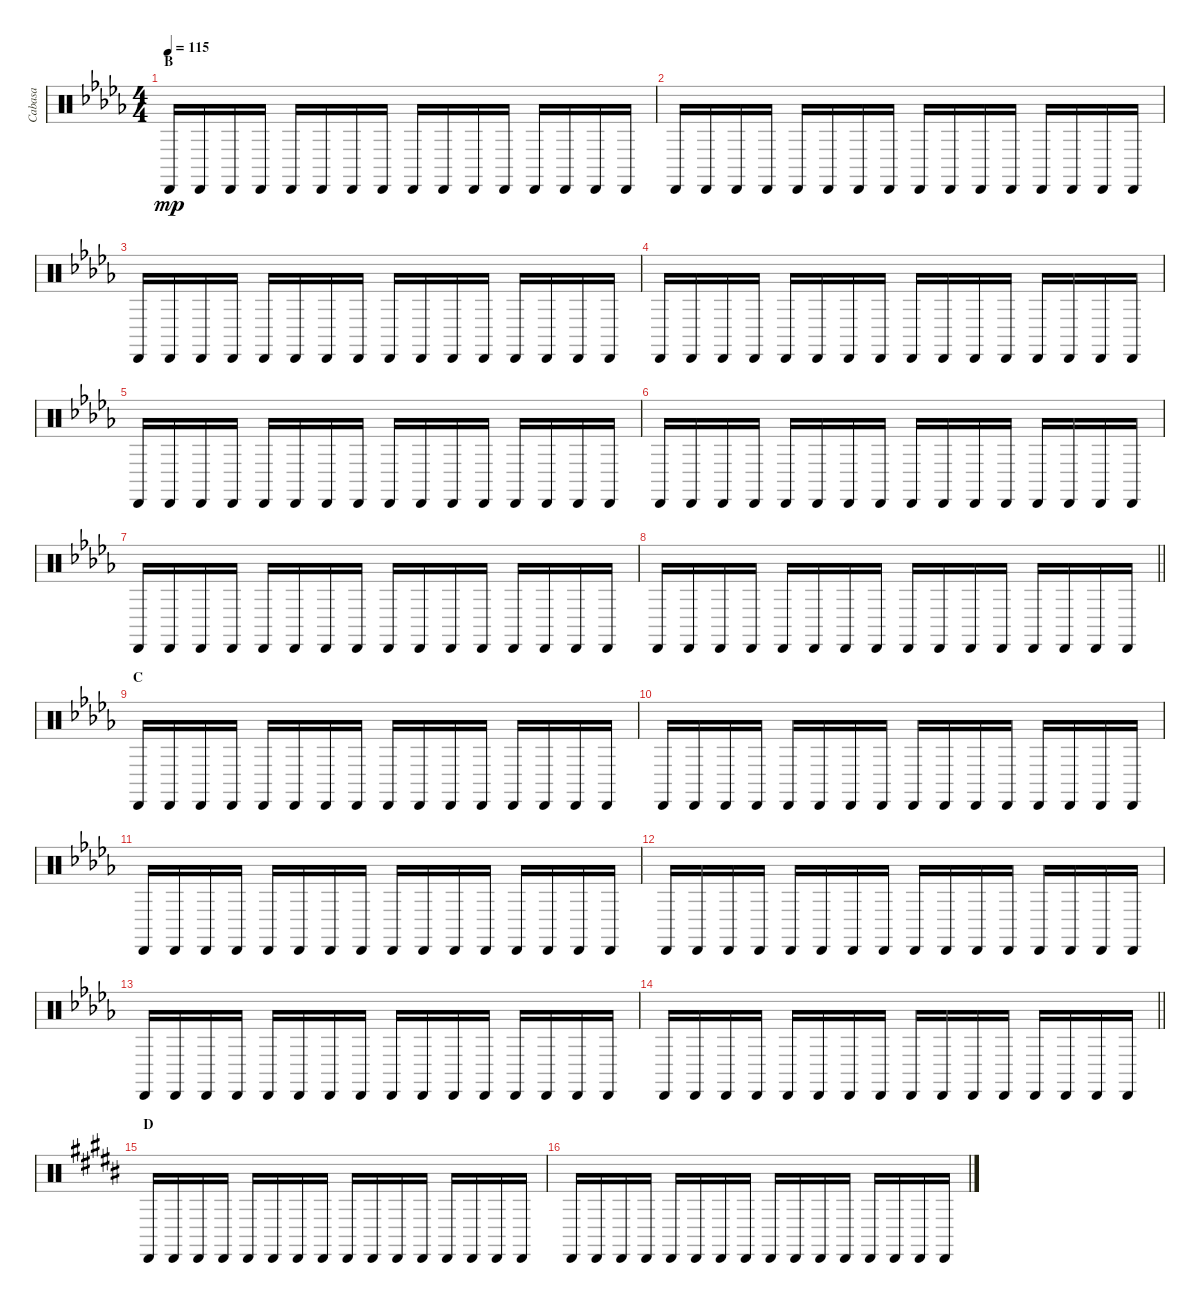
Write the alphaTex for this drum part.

\track ("Cabasa" "Cabasa") {instrument percussion}
\staff {score}
\articulation defaults
\ts (4 4)
\section ("" "B")
\tempo 115
\clef neutral
\ks db "Cabasa (hit)".16{dy mp} "Cabasa (hit)".16 "Cabasa (hit)".16 "Cabasa (hit)".16 "Cabasa (hit)".16 "Cabasa (hit)".16 "Cabasa (hit)".16 "Cabasa (hit)".16 "Cabasa (hit)".16 "Cabasa (hit)".16 "Cabasa (hit)".16 "Cabasa (hit)".16 "Cabasa (hit)".16 "Cabasa (hit)".16 "Cabasa (hit)".16 "Cabasa (hit)".16
|
"Cabasa (hit)".16 "Cabasa (hit)".16 "Cabasa (hit)".16 "Cabasa (hit)".16 "Cabasa (hit)".16 "Cabasa (hit)".16 "Cabasa (hit)".16 "Cabasa (hit)".16 "Cabasa (hit)".16 "Cabasa (hit)".16 "Cabasa (hit)".16 "Cabasa (hit)".16 "Cabasa (hit)".16 "Cabasa (hit)".16 "Cabasa (hit)".16 "Cabasa (hit)".16 |
"Cabasa (hit)".16 "Cabasa (hit)".16 "Cabasa (hit)".16 "Cabasa (hit)".16 "Cabasa (hit)".16 "Cabasa (hit)".16 "Cabasa (hit)".16 "Cabasa (hit)".16 "Cabasa (hit)".16 "Cabasa (hit)".16 "Cabasa (hit)".16 "Cabasa (hit)".16 "Cabasa (hit)".16 "Cabasa (hit)".16 "Cabasa (hit)".16 "Cabasa (hit)".16 |
"Cabasa (hit)".16 "Cabasa (hit)".16 "Cabasa (hit)".16 "Cabasa (hit)".16 "Cabasa (hit)".16 "Cabasa (hit)".16 "Cabasa (hit)".16 "Cabasa (hit)".16 "Cabasa (hit)".16 "Cabasa (hit)".16 "Cabasa (hit)".16 "Cabasa (hit)".16 "Cabasa (hit)".16 "Cabasa (hit)".16 "Cabasa (hit)".16 "Cabasa (hit)".16 |
"Cabasa (hit)".16 "Cabasa (hit)".16 "Cabasa (hit)".16 "Cabasa (hit)".16 "Cabasa (hit)".16 "Cabasa (hit)".16 "Cabasa (hit)".16 "Cabasa (hit)".16 "Cabasa (hit)".16 "Cabasa (hit)".16 "Cabasa (hit)".16 "Cabasa (hit)".16 "Cabasa (hit)".16 "Cabasa (hit)".16 "Cabasa (hit)".16 "Cabasa (hit)".16 |
"Cabasa (hit)".16 "Cabasa (hit)".16 "Cabasa (hit)".16 "Cabasa (hit)".16 "Cabasa (hit)".16 "Cabasa (hit)".16 "Cabasa (hit)".16 "Cabasa (hit)".16 "Cabasa (hit)".16 "Cabasa (hit)".16 "Cabasa (hit)".16 "Cabasa (hit)".16 "Cabasa (hit)".16 "Cabasa (hit)".16 "Cabasa (hit)".16 "Cabasa (hit)".16 |
"Cabasa (hit)".16 "Cabasa (hit)".16 "Cabasa (hit)".16 "Cabasa (hit)".16 "Cabasa (hit)".16 "Cabasa (hit)".16 "Cabasa (hit)".16 "Cabasa (hit)".16 "Cabasa (hit)".16 "Cabasa (hit)".16 "Cabasa (hit)".16 "Cabasa (hit)".16 "Cabasa (hit)".16 "Cabasa (hit)".16 "Cabasa (hit)".16 "Cabasa (hit)".16 |
\barLineRight lightlight "Cabasa (hit)".16 "Cabasa (hit)".16 "Cabasa (hit)".16 "Cabasa (hit)".16 "Cabasa (hit)".16 "Cabasa (hit)".16 "Cabasa (hit)".16 "Cabasa (hit)".16 "Cabasa (hit)".16 "Cabasa (hit)".16 "Cabasa (hit)".16 "Cabasa (hit)".16 "Cabasa (hit)".16 "Cabasa (hit)".16 "Cabasa (hit)".16 "Cabasa (hit)".16
|
\section ("" "C")
"Cabasa (hit)".16 "Cabasa (hit)".16 "Cabasa (hit)".16 "Cabasa (hit)".16 "Cabasa (hit)".16 "Cabasa (hit)".16 "Cabasa (hit)".16 "Cabasa (hit)".16 "Cabasa (hit)".16 "Cabasa (hit)".16 "Cabasa (hit)".16 "Cabasa (hit)".16 "Cabasa (hit)".16 "Cabasa (hit)".16 "Cabasa (hit)".16 "Cabasa (hit)".16 |
"Cabasa (hit)".16 "Cabasa (hit)".16 "Cabasa (hit)".16 "Cabasa (hit)".16 "Cabasa (hit)".16 "Cabasa (hit)".16 "Cabasa (hit)".16 "Cabasa (hit)".16 "Cabasa (hit)".16 "Cabasa (hit)".16 "Cabasa (hit)".16 "Cabasa (hit)".16 "Cabasa (hit)".16 "Cabasa (hit)".16 "Cabasa (hit)".16 "Cabasa (hit)".16 |
"Cabasa (hit)".16 "Cabasa (hit)".16 "Cabasa (hit)".16 "Cabasa (hit)".16 "Cabasa (hit)".16 "Cabasa (hit)".16 "Cabasa (hit)".16 "Cabasa (hit)".16 "Cabasa (hit)".16 "Cabasa (hit)".16 "Cabasa (hit)".16 "Cabasa (hit)".16 "Cabasa (hit)".16 "Cabasa (hit)".16 "Cabasa (hit)".16 "Cabasa (hit)".16 |
"Cabasa (hit)".16 "Cabasa (hit)".16 "Cabasa (hit)".16 "Cabasa (hit)".16 "Cabasa (hit)".16 "Cabasa (hit)".16 "Cabasa (hit)".16 "Cabasa (hit)".16 "Cabasa (hit)".16 "Cabasa (hit)".16 "Cabasa (hit)".16 "Cabasa (hit)".16 "Cabasa (hit)".16 "Cabasa (hit)".16 "Cabasa (hit)".16 "Cabasa (hit)".16 |
"Cabasa (hit)".16 "Cabasa (hit)".16 "Cabasa (hit)".16 "Cabasa (hit)".16 "Cabasa (hit)".16 "Cabasa (hit)".16 "Cabasa (hit)".16 "Cabasa (hit)".16 "Cabasa (hit)".16 "Cabasa (hit)".16 "Cabasa (hit)".16 "Cabasa (hit)".16 "Cabasa (hit)".16 "Cabasa (hit)".16 "Cabasa (hit)".16 "Cabasa (hit)".16 |
\barLineRight lightlight "Cabasa (hit)".16 "Cabasa (hit)".16 "Cabasa (hit)".16 "Cabasa (hit)".16 "Cabasa (hit)".16 "Cabasa (hit)".16 "Cabasa (hit)".16 "Cabasa (hit)".16 "Cabasa (hit)".16 "Cabasa (hit)".16 "Cabasa (hit)".16 "Cabasa (hit)".16 "Cabasa (hit)".16 "Cabasa (hit)".16 "Cabasa (hit)".16 "Cabasa (hit)".16
|
\section ("" "D")
\ks b "Cabasa (hit)".16 "Cabasa (hit)".16 "Cabasa (hit)".16 "Cabasa (hit)".16 "Cabasa (hit)".16 "Cabasa (hit)".16 "Cabasa (hit)".16 "Cabasa (hit)".16 "Cabasa (hit)".16 "Cabasa (hit)".16 "Cabasa (hit)".16 "Cabasa (hit)".16 "Cabasa (hit)".16 "Cabasa (hit)".16 "Cabasa (hit)".16 "Cabasa (hit)".16
|
"Cabasa (hit)".16 "Cabasa (hit)".16 "Cabasa (hit)".16 "Cabasa (hit)".16 "Cabasa (hit)".16 "Cabasa (hit)".16 "Cabasa (hit)".16 "Cabasa (hit)".16 "Cabasa (hit)".16 "Cabasa (hit)".16 "Cabasa (hit)".16 "Cabasa (hit)".16 "Cabasa (hit)".16 "Cabasa (hit)".16 "Cabasa (hit)".16 "Cabasa (hit)".16
